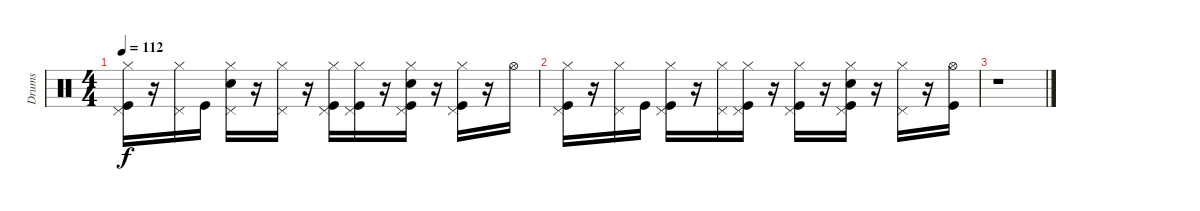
\track ("Drums" "Drums") {instrument percussion}
\staff {score}
\articulation defaults
\ts (4 4)
\tempo 112
\clef neutral
\ks c
("Hi-Hat (closed)" "Pedal Hi-Hat (hit)" "Kick (hit)").16{dy f} r.16 ("Hi-Hat (closed)" "Pedal Hi-Hat (hit)").16 "Kick (hit)".16 ("Hi-Hat (closed)" "Pedal Hi-Hat (hit)" "Snare (hit) 2").16 r.16 ("Hi-Hat (closed)" "Pedal Hi-Hat (hit)").16 r.16 ("Pedal Hi-Hat (hit)" "Kick (hit)" "Hi-Hat (closed)").16 ("Hi-Hat (closed)" "Pedal Hi-Hat (hit)" "Kick (hit)").16 r.16 ("Pedal Hi-Hat (hit)" "Kick (hit)" "Snare (hit) 2" "Hi-Hat (closed)").16 r.16 ("Hi-Hat (closed)" "Kick (hit)" "Pedal Hi-Hat (hit)").16 r.16 "Hi-Hat (open)".16 |
("Hi-Hat (closed)" "Pedal Hi-Hat (hit)" "Kick (hit)").16 r.16 ("Hi-Hat (closed)" "Pedal Hi-Hat (hit)").16 "Kick (hit)".16 ("Hi-Hat (closed)" "Pedal Hi-Hat (hit)" "Kick (hit)").16 r.16 ("Hi-Hat (closed)" "Pedal Hi-Hat (hit)").16 ("Hi-Hat (closed)" "Pedal Hi-Hat (hit)" "Kick (hit)").16 r.16 ("Hi-Hat (closed)" "Pedal Hi-Hat (hit)" "Kick (hit)").16 r.16 ("Hi-Hat (closed)" "Pedal Hi-Hat (hit)" "Kick (hit)" "Snare (hit) 2").16 r.16 ("Hi-Hat (closed)" "Pedal Hi-Hat (hit)").16 r.16 ("Hi-Hat (open)" "Kick (hit)").16 |
r.1
